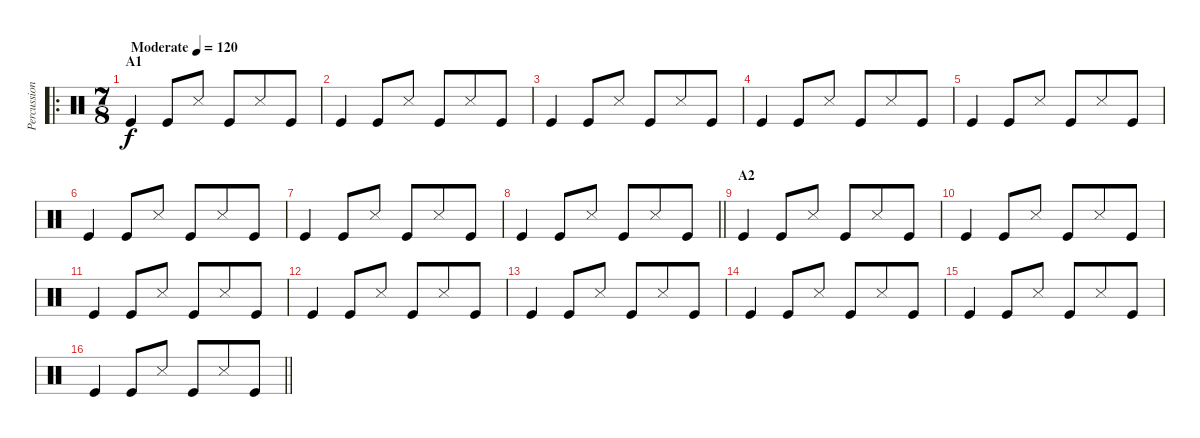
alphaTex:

\track ("Percussion" "Percussion") {instrument percussion}
\staff {score}
\articulation defaults
\ro
\ts (7 8)
\section ("" "A1")
\tempo (120 "Moderate")
\clef neutral
\ks c "Kick (hit)".4{dy f} "Kick (hit)".8 "Snare (side stick) 3".8 "Kick (hit)".8 "Snare (side stick) 3".8 "Kick (hit)".8
|
"Kick (hit)".4 "Kick (hit)".8 "Snare (side stick) 3".8 "Kick (hit)".8 "Snare (side stick) 3".8 "Kick (hit)".8 |
"Kick (hit)".4 "Kick (hit)".8 "Snare (side stick) 3".8 "Kick (hit)".8 "Snare (side stick) 3".8 "Kick (hit)".8 |
"Kick (hit)".4 "Kick (hit)".8 "Snare (side stick) 3".8 "Kick (hit)".8 "Snare (side stick) 3".8 "Kick (hit)".8 |
"Kick (hit)".4 "Kick (hit)".8 "Snare (side stick) 3".8 "Kick (hit)".8 "Snare (side stick) 3".8 "Kick (hit)".8 |
"Kick (hit)".4 "Kick (hit)".8 "Snare (side stick) 3".8 "Kick (hit)".8 "Snare (side stick) 3".8 "Kick (hit)".8 |
"Kick (hit)".4 "Kick (hit)".8 "Snare (side stick) 3".8 "Kick (hit)".8 "Snare (side stick) 3".8 "Kick (hit)".8 |
\barLineRight lightlight "Kick (hit)".4 "Kick (hit)".8 "Snare (side stick) 3".8 "Kick (hit)".8 "Snare (side stick) 3".8 "Kick (hit)".8
|
\section ("" "A2")
"Kick (hit)".4 "Kick (hit)".8 "Snare (side stick) 3".8 "Kick (hit)".8 "Snare (side stick) 3".8 "Kick (hit)".8 |
"Kick (hit)".4 "Kick (hit)".8 "Snare (side stick) 3".8 "Kick (hit)".8 "Snare (side stick) 3".8 "Kick (hit)".8 |
"Kick (hit)".4 "Kick (hit)".8 "Snare (side stick) 3".8 "Kick (hit)".8 "Snare (side stick) 3".8 "Kick (hit)".8 |
"Kick (hit)".4 "Kick (hit)".8 "Snare (side stick) 3".8 "Kick (hit)".8 "Snare (side stick) 3".8 "Kick (hit)".8 |
"Kick (hit)".4 "Kick (hit)".8 "Snare (side stick) 3".8 "Kick (hit)".8 "Snare (side stick) 3".8 "Kick (hit)".8 |
"Kick (hit)".4 "Kick (hit)".8 "Snare (side stick) 3".8 "Kick (hit)".8 "Snare (side stick) 3".8 "Kick (hit)".8 |
"Kick (hit)".4 "Kick (hit)".8 "Snare (side stick) 3".8 "Kick (hit)".8 "Snare (side stick) 3".8 "Kick (hit)".8 |
\barLineRight lightlight "Kick (hit)".4 "Kick (hit)".8 "Snare (side stick) 3".8 "Kick (hit)".8 "Snare (side stick) 3".8 "Kick (hit)".8
